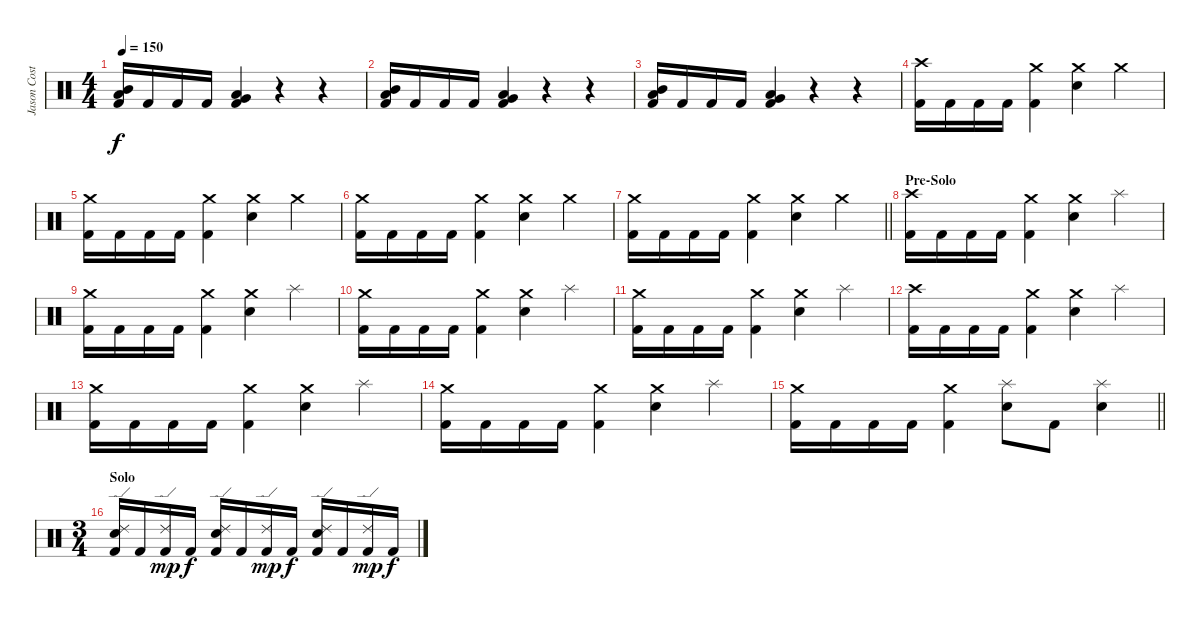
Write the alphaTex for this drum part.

\track ("Jason Costa" "Jason Cost") {instrument percussion}
\staff {score}
\articulation defaults
\ts (4 4)
\tempo 150
\clef neutral
\ks c
("Mid Tom (hit)" "Low Tom (hit)" "Kick (hit) 2").16{dy f} "Kick (hit) 2".16 "Kick (hit) 2".16 "Kick (hit) 2".16 ("Low Tom (hit)" "Very Low Tom (hit)" "Kick (hit) 2").4 r.4 r.4 |
("Mid Tom (hit)" "Low Tom (hit)" "Kick (hit) 2").16 "Kick (hit) 2".16 "Kick (hit) 2".16 "Kick (hit) 2".16 ("Low Tom (hit)" "Very Low Tom (hit)" "Kick (hit) 2").4 r.4 r.4 |
("Mid Tom (hit)" "Low Tom (hit)" "Kick (hit) 2").16 "Kick (hit) 2".16 "Kick (hit) 2".16 "Kick (hit) 2".16 ("Low Tom (hit)" "Very Low Tom (hit)" "Kick (hit) 2").4 r.4 r.4 |
("Crash high (hit)" "Kick (hit) 2").16 "Kick (hit) 2".16 "Kick (hit) 2".16 "Kick (hit) 2".16 ("Crash medium (hit)" "Kick (hit) 2").4 ("Crash medium (hit)" "Electric Snare (hit)").4 "Crash medium (hit)".4 |
("Crash medium (hit)" "Kick (hit) 2").16 "Kick (hit) 2".16 "Kick (hit) 2".16 "Kick (hit) 2".16 ("Crash medium (hit)" "Kick (hit) 2").4 ("Crash medium (hit)" "Electric Snare (hit)").4 "Crash medium (hit)".4 |
("Crash medium (hit)" "Kick (hit) 2").16 "Kick (hit) 2".16 "Kick (hit) 2".16 "Kick (hit) 2".16 ("Crash medium (hit)" "Kick (hit) 2").4 ("Crash medium (hit)" "Electric Snare (hit)").4 "Crash medium (hit)".4 |
\barLineRight lightlight
("Crash medium (hit)" "Kick (hit) 2").16 "Kick (hit) 2".16 "Kick (hit) 2".16 "Kick (hit) 2".16 ("Crash medium (hit)" "Kick (hit) 2").4 ("Crash medium (hit)" "Electric Snare (hit)").4 "Crash medium (hit)".4 |
\section ("" "Pre-Solo")
("Crash high (hit)" "Kick (hit) 2").16 "Kick (hit) 2".16 "Kick (hit) 2".16 "Kick (hit) 2".16 ("Crash medium (hit)" "Kick (hit) 2").4 ("Crash medium (hit)" "Electric Snare (hit)").4 "Splash (hit)".4 |
("Crash medium (hit)" "Kick (hit) 2").16 "Kick (hit) 2".16 "Kick (hit) 2".16 "Kick (hit) 2".16 ("Crash medium (hit)" "Kick (hit) 2").4 ("Crash medium (hit)" "Electric Snare (hit)").4 "Splash (hit)".4 |
("Crash medium (hit)" "Kick (hit) 2").16 "Kick (hit) 2".16 "Kick (hit) 2".16 "Kick (hit) 2".16 ("Crash medium (hit)" "Kick (hit) 2").4 ("Crash medium (hit)" "Electric Snare (hit)").4 "Splash (hit)".4 |
("Crash medium (hit)" "Kick (hit) 2").16 "Kick (hit) 2".16 "Kick (hit) 2".16 "Kick (hit) 2".16 ("Crash medium (hit)" "Kick (hit) 2").4 ("Crash medium (hit)" "Electric Snare (hit)").4 "Splash (hit)".4 |
("Crash high (hit)" "Kick (hit) 2").16 "Kick (hit) 2".16 "Kick (hit) 2".16 "Kick (hit) 2".16 ("Crash medium (hit)" "Kick (hit) 2").4 ("Crash medium (hit)" "Electric Snare (hit)").4 "Splash (hit)".4 |
("Crash medium (hit)" "Kick (hit) 2").16 "Kick (hit) 2".16 "Kick (hit) 2".16 "Kick (hit) 2".16 ("Crash medium (hit)" "Kick (hit) 2").4 ("Crash medium (hit)" "Electric Snare (hit)").4 "Splash (hit)".4 |
("Crash medium (hit)" "Kick (hit) 2").16 "Kick (hit) 2".16 "Kick (hit) 2".16 "Kick (hit) 2".16 ("Crash medium (hit)" "Kick (hit) 2").4 ("Crash medium (hit)" "Electric Snare (hit)").4 "Splash (hit)".4 |
\barLineRight lightlight
("Crash medium (hit)" "Kick (hit) 2").16 "Kick (hit) 2".16 "Kick (hit) 2".16 "Kick (hit) 2".16 ("Crash medium (hit)" "Kick (hit) 2").4 ("Splash (hit)" "Electric Snare (hit)").8 "Kick (hit) 2".8 ("Splash (hit)" "Electric Snare (hit)").4 |
\ts (3 4)
\section ("" "Solo")
("Ride (edge) 2" "Electric Snare (hit)" "Kick (hit) 2").16 "Kick (hit) 2".16 ("Ride (edge) 2" "Kick (hit) 2").16{dy mp} "Kick (hit) 2".16{dy f} ("Ride (edge) 2" "Electric Snare (hit)" "Kick (hit) 2").16 "Kick (hit) 2".16 ("Ride (edge) 2" "Kick (hit) 2").16{dy mp} "Kick (hit) 2".16{dy f} ("Ride (edge) 2" "Electric Snare (hit)" "Kick (hit) 2").16 "Kick (hit) 2".16 ("Ride (edge) 2" "Kick (hit) 2").16{dy mp} "Kick (hit) 2".16{dy f}
